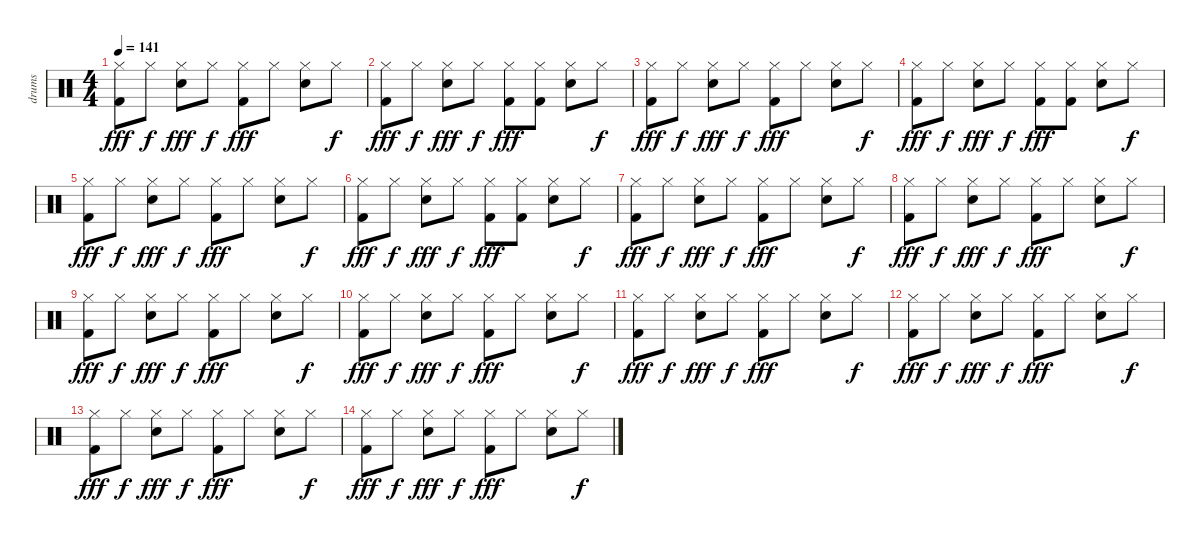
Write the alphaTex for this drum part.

\track ("drums" "drums") {instrument percussion}
\staff {score}
\articulation defaults
\ts (4 4)
\tempo 141
\clef neutral
\ks c
("Hi-Hat (closed)" "Kick (hit) 2").8{dy fff} "Hi-Hat (closed)".8{dy f} ("Hi-Hat (closed)" "Snare (hit) 2").8{dy fff} "Hi-Hat (closed)".8{dy f} ("Hi-Hat (closed)" "Kick (hit) 2").8{dy fff} "Hi-Hat (closed)".8 ("Hi-Hat (closed)" "Snare (hit) 2").8 "Hi-Hat (closed)".8{dy f} |
("Hi-Hat (closed)" "Kick (hit) 2").8{dy fff} "Hi-Hat (closed)".8{dy f} ("Hi-Hat (closed)" "Snare (hit) 2").8{dy fff} "Hi-Hat (closed)".8{dy f} ("Hi-Hat (closed)" "Kick (hit) 2").8{dy fff} ("Hi-Hat (closed)" "Kick (hit) 2").8 ("Hi-Hat (closed)" "Snare (hit) 2").8 "Hi-Hat (closed)".8{dy f} |
("Hi-Hat (closed)" "Kick (hit) 2").8{dy fff} "Hi-Hat (closed)".8{dy f} ("Hi-Hat (closed)" "Snare (hit) 2").8{dy fff} "Hi-Hat (closed)".8{dy f} ("Hi-Hat (closed)" "Kick (hit) 2").8{dy fff} "Hi-Hat (closed)".8 ("Hi-Hat (closed)" "Snare (hit) 2").8 "Hi-Hat (closed)".8{dy f} |
("Hi-Hat (closed)" "Kick (hit) 2").8{dy fff} "Hi-Hat (closed)".8{dy f} ("Hi-Hat (closed)" "Snare (hit) 2").8{dy fff} "Hi-Hat (closed)".8{dy f} ("Hi-Hat (closed)" "Kick (hit) 2").8{dy fff} ("Hi-Hat (closed)" "Kick (hit) 2").8 ("Hi-Hat (closed)" "Snare (hit) 2").8 "Hi-Hat (closed)".8{dy f} |
("Hi-Hat (closed)" "Kick (hit) 2").8{dy fff} "Hi-Hat (closed)".8{dy f} ("Hi-Hat (closed)" "Snare (hit) 2").8{dy fff} "Hi-Hat (closed)".8{dy f} ("Hi-Hat (closed)" "Kick (hit) 2").8{dy fff} "Hi-Hat (closed)".8 ("Hi-Hat (closed)" "Snare (hit) 2").8 "Hi-Hat (closed)".8{dy f} |
("Hi-Hat (closed)" "Kick (hit) 2").8{dy fff} "Hi-Hat (closed)".8{dy f} ("Hi-Hat (closed)" "Snare (hit) 2").8{dy fff} "Hi-Hat (closed)".8{dy f} ("Hi-Hat (closed)" "Kick (hit) 2").8{dy fff} ("Hi-Hat (closed)" "Kick (hit) 2").8 ("Hi-Hat (closed)" "Snare (hit) 2").8 "Hi-Hat (closed)".8{dy f} |
("Hi-Hat (closed)" "Kick (hit) 2").8{dy fff} "Hi-Hat (closed)".8{dy f} ("Hi-Hat (closed)" "Snare (hit) 2").8{dy fff} "Hi-Hat (closed)".8{dy f} ("Hi-Hat (closed)" "Kick (hit) 2").8{dy fff} "Hi-Hat (closed)".8 ("Hi-Hat (closed)" "Snare (hit) 2").8 "Hi-Hat (closed)".8{dy f} |
("Hi-Hat (closed)" "Kick (hit) 2").8{dy fff} "Hi-Hat (closed)".8{dy f} ("Hi-Hat (closed)" "Snare (hit) 2").8{dy fff} "Hi-Hat (closed)".8{dy f} ("Hi-Hat (closed)" "Kick (hit) 2").8{dy fff} "Hi-Hat (closed)".8 ("Hi-Hat (closed)" "Snare (hit) 2").8 "Hi-Hat (closed)".8{dy f} |
("Hi-Hat (closed)" "Kick (hit) 2").8{dy fff} "Hi-Hat (closed)".8{dy f} ("Hi-Hat (closed)" "Snare (hit) 2").8{dy fff} "Hi-Hat (closed)".8{dy f} ("Hi-Hat (closed)" "Kick (hit) 2").8{dy fff} "Hi-Hat (closed)".8 ("Hi-Hat (closed)" "Snare (hit) 2").8 "Hi-Hat (closed)".8{dy f} |
("Hi-Hat (closed)" "Kick (hit) 2").8{dy fff} "Hi-Hat (closed)".8{dy f} ("Hi-Hat (closed)" "Snare (hit) 2").8{dy fff} "Hi-Hat (closed)".8{dy f} ("Hi-Hat (closed)" "Kick (hit) 2").8{dy fff} "Hi-Hat (closed)".8 ("Hi-Hat (closed)" "Snare (hit) 2").8 "Hi-Hat (closed)".8{dy f} |
("Hi-Hat (closed)" "Kick (hit) 2").8{dy fff} "Hi-Hat (closed)".8{dy f} ("Hi-Hat (closed)" "Snare (hit) 2").8{dy fff} "Hi-Hat (closed)".8{dy f} ("Hi-Hat (closed)" "Kick (hit) 2").8{dy fff} "Hi-Hat (closed)".8 ("Hi-Hat (closed)" "Snare (hit) 2").8 "Hi-Hat (closed)".8{dy f} |
("Hi-Hat (closed)" "Kick (hit) 2").8{dy fff} "Hi-Hat (closed)".8{dy f} ("Hi-Hat (closed)" "Snare (hit) 2").8{dy fff} "Hi-Hat (closed)".8{dy f} ("Hi-Hat (closed)" "Kick (hit) 2").8{dy fff} "Hi-Hat (closed)".8 ("Hi-Hat (closed)" "Snare (hit) 2").8 "Hi-Hat (closed)".8{dy f} |
("Hi-Hat (closed)" "Kick (hit) 2").8{dy fff} "Hi-Hat (closed)".8{dy f} ("Hi-Hat (closed)" "Snare (hit) 2").8{dy fff} "Hi-Hat (closed)".8{dy f} ("Hi-Hat (closed)" "Kick (hit) 2").8{dy fff} "Hi-Hat (closed)".8 ("Hi-Hat (closed)" "Snare (hit) 2").8 "Hi-Hat (closed)".8{dy f} |
("Hi-Hat (closed)" "Kick (hit) 2").8{dy fff} "Hi-Hat (closed)".8{dy f} ("Hi-Hat (closed)" "Snare (hit) 2").8{dy fff} "Hi-Hat (closed)".8{dy f} ("Hi-Hat (closed)" "Kick (hit) 2").8{dy fff} "Hi-Hat (closed)".8 ("Hi-Hat (closed)" "Snare (hit) 2").8 "Hi-Hat (closed)".8{dy f}
